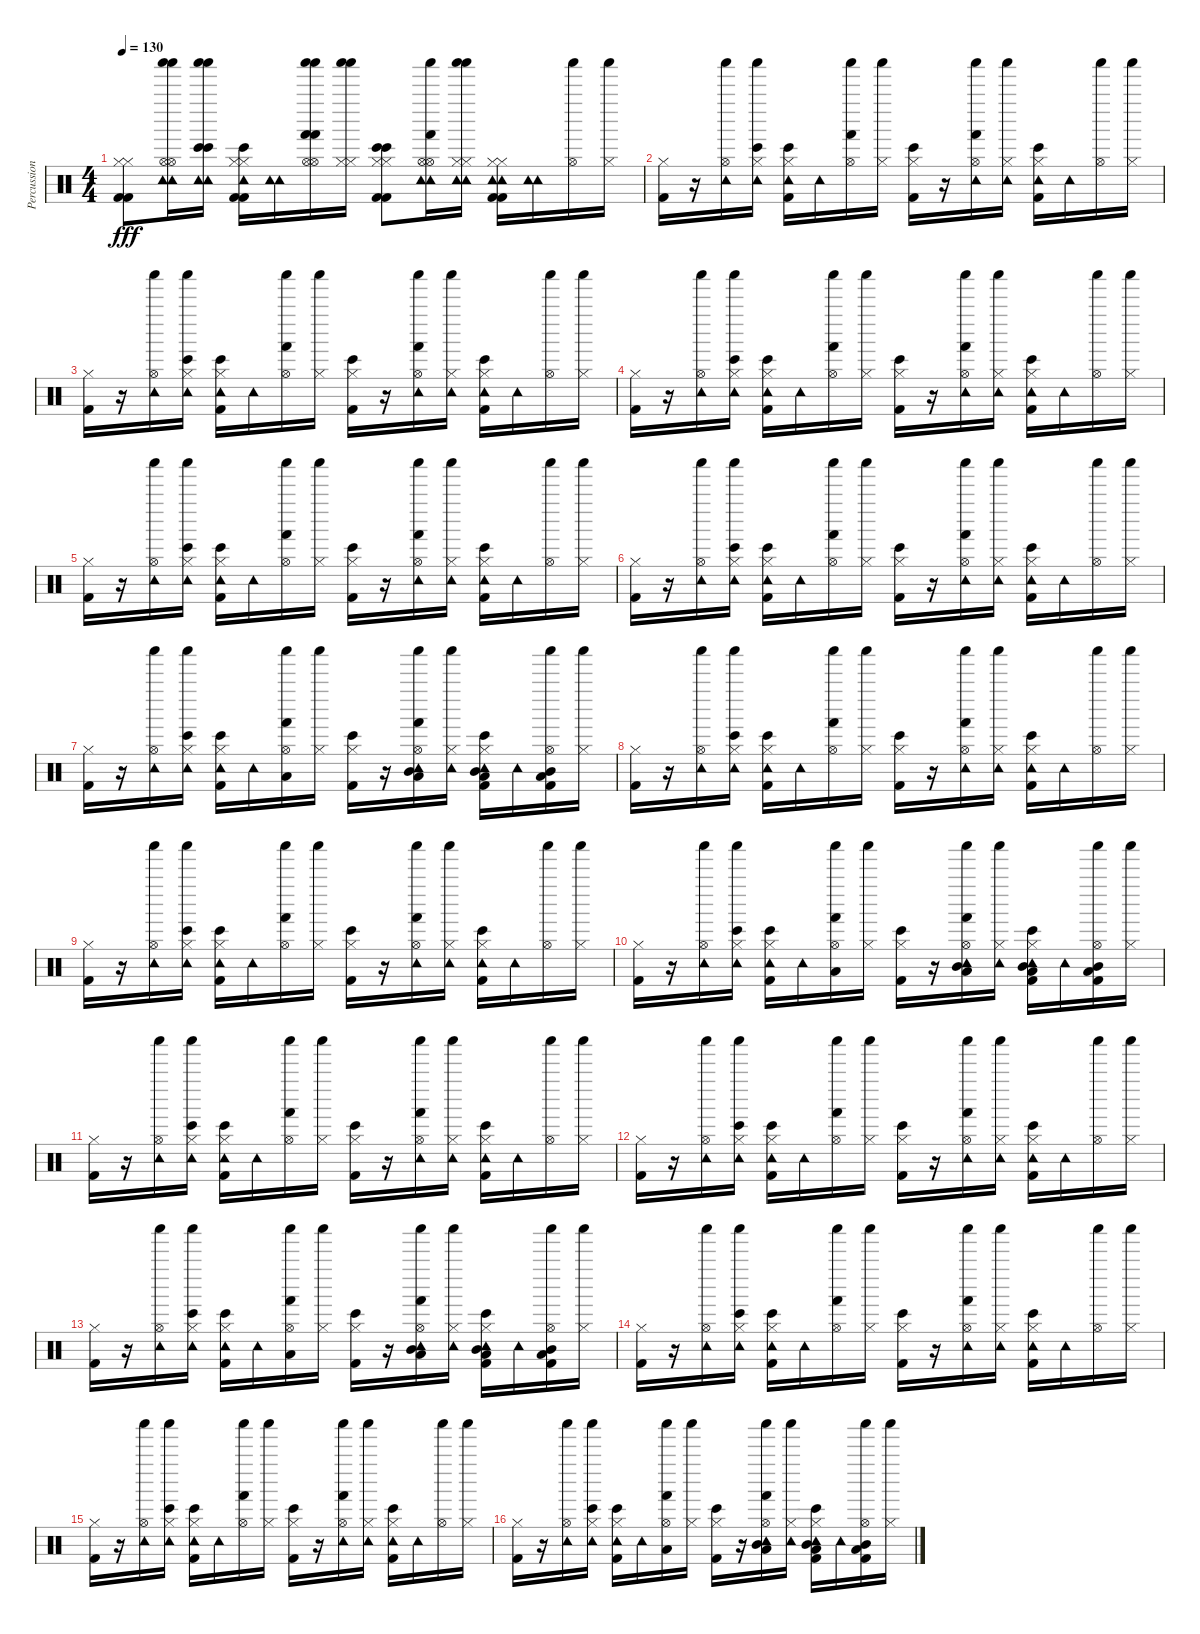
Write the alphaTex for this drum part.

\track ("Percussions" "Percussion") {instrument percussion}
\staff {score}
\articulation defaults
\ts (4 4)
\tempo 130
\clef neutral
\ks c
("Hi-Hat (closed)" "Kick (hit) 2" "Hi-Hat (closed)" "Kick (hit) 2").8{dy fff} ("Hi-Hat (open)" "Hi-Hat (open)" "Tambourine (hit)" "Shaker (hit)" "Tambourine (hit)" "Shaker (hit)").16 ("Tambourine (hit)" "Tambourine (hit)" "Shaker (hit)" "Bongo High (hit)" "Shaker (hit)" "Bongo High (hit)").16 ("Hi-Hat (closed)" "Hi-Hat (closed)" "Kick (hit) 2" "Tambourine (hit)" "Bongo High (hit)" "Kick (hit) 2").16 ("Tambourine (hit)" "Tambourine (hit)").16 ("Hi-Hat (open)" "Shaker (hit)" "Hand (hit)" "Hi-Hat (open)" "Shaker (hit)" "Hand (hit)").16 ("Shaker (hit)" "Hi-Hat (closed)" "Shaker (hit)" "Hi-Hat (closed)").16 ("Hi-Hat (closed)" "Kick (hit) 2" "Bongo High (hit)" "Hi-Hat (closed)" "Kick (hit) 2" "Bongo High (hit)").8 ("Hi-Hat (open)" "Hi-Hat (open)" "Tambourine (hit)" "Shaker (hit)" "Hand (hit)" "Tambourine (hit)").16 ("Tambourine (hit)" "Shaker (hit)" "Hi-Hat (closed)" "Tambourine (hit)" "Shaker (hit)" "Hi-Hat (closed)").16 ("Hi-Hat (closed)" "Kick (hit) 2" "Hi-Hat (closed)" "Kick (hit) 2" "Tambourine (hit)" "Tambourine (hit)").16 ("Tambourine (hit)" "Tambourine (hit)").16 ("Hi-Hat (open)" "Shaker (hit)").16 ("Shaker (hit)" "Hi-Hat (closed)").16 |
("Hi-Hat (closed)" "Kick (hit) 2").16 r.16 ("Hi-Hat (open)" "Tambourine (hit)" "Shaker (hit)").16 ("Tambourine (hit)" "Shaker (hit)" "Bongo High (hit)" "Hi-Hat (closed)").16 ("Hi-Hat (closed)" "Kick (hit) 2" "Tambourine (hit)" "Bongo High (hit)").16 "Tambourine (hit)".16 ("Hi-Hat (open)" "Shaker (hit)" "Hand (hit)").16 ("Shaker (hit)" "Hi-Hat (closed)").16 ("Hi-Hat (closed)" "Kick (hit) 2" "Bongo High (hit)").16 r.16 ("Hi-Hat (open)" "Tambourine (hit)" "Shaker (hit)" "Hand (hit)").16 ("Tambourine (hit)" "Shaker (hit)" "Hi-Hat (closed)").16 ("Hi-Hat (closed)" "Kick (hit) 2" "Tambourine (hit)" "Bongo High (hit)").16 "Tambourine (hit)".16 ("Hi-Hat (open)" "Shaker (hit)").16 ("Shaker (hit)" "Hi-Hat (closed)").16 |
("Hi-Hat (closed)" "Kick (hit) 2").16 r.16 ("Hi-Hat (open)" "Tambourine (hit)" "Shaker (hit)").16 ("Tambourine (hit)" "Shaker (hit)" "Bongo High (hit)" "Hi-Hat (closed)").16 ("Hi-Hat (closed)" "Kick (hit) 2" "Tambourine (hit)" "Bongo High (hit)").16 "Tambourine (hit)".16 ("Hi-Hat (open)" "Shaker (hit)" "Hand (hit)").16 ("Shaker (hit)" "Hi-Hat (closed)").16 ("Hi-Hat (closed)" "Kick (hit) 2" "Bongo High (hit)").16 r.16 ("Hi-Hat (open)" "Tambourine (hit)" "Shaker (hit)" "Hand (hit)").16 ("Tambourine (hit)" "Shaker (hit)" "Hi-Hat (closed)").16 ("Hi-Hat (closed)" "Kick (hit) 2" "Tambourine (hit)" "Bongo High (hit)").16 "Tambourine (hit)".16 ("Hi-Hat (open)" "Shaker (hit)").16 ("Shaker (hit)" "Hi-Hat (closed)").16 |
("Hi-Hat (closed)" "Kick (hit) 2").16 r.16 ("Hi-Hat (open)" "Tambourine (hit)" "Shaker (hit)").16 ("Tambourine (hit)" "Shaker (hit)" "Bongo High (hit)" "Hi-Hat (closed)").16 ("Hi-Hat (closed)" "Kick (hit) 2" "Tambourine (hit)" "Bongo High (hit)").16 "Tambourine (hit)".16 ("Hi-Hat (open)" "Shaker (hit)" "Hand (hit)").16 ("Shaker (hit)" "Hi-Hat (closed)").16 ("Hi-Hat (closed)" "Kick (hit) 2" "Bongo High (hit)").16 r.16 ("Hi-Hat (open)" "Tambourine (hit)" "Shaker (hit)" "Hand (hit)").16 ("Tambourine (hit)" "Shaker (hit)" "Hi-Hat (closed)").16 ("Hi-Hat (closed)" "Kick (hit) 2" "Tambourine (hit)" "Bongo High (hit)").16 "Tambourine (hit)".16 ("Hi-Hat (open)" "Shaker (hit)").16 ("Shaker (hit)" "Hi-Hat (closed)").16 |
("Hi-Hat (closed)" "Kick (hit) 2").16 r.16 ("Hi-Hat (open)" "Tambourine (hit)" "Shaker (hit)").16 ("Tambourine (hit)" "Shaker (hit)" "Bongo High (hit)" "Hi-Hat (closed)").16 ("Hi-Hat (closed)" "Kick (hit) 2" "Tambourine (hit)" "Bongo High (hit)").16 "Tambourine (hit)".16 ("Hi-Hat (open)" "Shaker (hit)" "Hand (hit)").16 ("Shaker (hit)" "Hi-Hat (closed)").16 ("Hi-Hat (closed)" "Kick (hit) 2" "Bongo High (hit)").16 r.16 ("Hi-Hat (open)" "Tambourine (hit)" "Shaker (hit)" "Hand (hit)").16 ("Tambourine (hit)" "Shaker (hit)" "Hi-Hat (closed)").16 ("Hi-Hat (closed)" "Kick (hit) 2" "Tambourine (hit)" "Bongo High (hit)").16 "Tambourine (hit)".16 ("Hi-Hat (open)" "Shaker (hit)").16 ("Shaker (hit)" "Hi-Hat (closed)").16 |
("Hi-Hat (closed)" "Kick (hit) 2").16 r.16 ("Hi-Hat (open)" "Tambourine (hit)" "Shaker (hit)").16 ("Tambourine (hit)" "Shaker (hit)" "Bongo High (hit)" "Hi-Hat (closed)").16 ("Hi-Hat (closed)" "Kick (hit) 2" "Tambourine (hit)" "Bongo High (hit)").16 "Tambourine (hit)".16 ("Hi-Hat (open)" "Shaker (hit)" "Hand (hit)").16 ("Shaker (hit)" "Hi-Hat (closed)").16 ("Hi-Hat (closed)" "Kick (hit) 2" "Bongo High (hit)").16 r.16 ("Hi-Hat (open)" "Tambourine (hit)" "Shaker (hit)" "Hand (hit)").16 ("Tambourine (hit)" "Shaker (hit)" "Hi-Hat (closed)").16 ("Hi-Hat (closed)" "Kick (hit) 2" "Tambourine (hit)" "Bongo High (hit)").16 "Tambourine (hit)".16 ("Hi-Hat (open)" "Shaker (hit)").16 ("Shaker (hit)" "Hi-Hat (closed)").16 |
("Hi-Hat (closed)" "Kick (hit) 2").16 r.16 ("Hi-Hat (open)" "Tambourine (hit)" "Shaker (hit)").16 ("Tambourine (hit)" "Shaker (hit)" "Bongo High (hit)" "Hi-Hat (closed)").16 ("Hi-Hat (closed)" "Kick (hit) 2" "Tambourine (hit)" "Bongo High (hit)").16 "Tambourine (hit)".16 ("Low Tom (hit)" "Hi-Hat (open)" "Shaker (hit)" "Hand (hit)").16 ("Shaker (hit)" "Hi-Hat (closed)").16 ("Hi-Hat (closed)" "Kick (hit) 2" "Bongo High (hit)").16 r.16 ("Low Tom (hit)" "Mid Tom (hit)" "Hi-Hat (open)" "Tambourine (hit)" "Shaker (hit)" "Hand (hit)").16 ("Tambourine (hit)" "Shaker (hit)" "Hi-Hat (closed)").16 ("Low Tom (hit)" "Mid Tom (hit)" "Hi-Hat (closed)" "Kick (hit) 2" "Tambourine (hit)" "Bongo High (hit)").16 "Tambourine (hit)".16 ("Kick (hit) 2" "Low Tom (hit)" "Mid Tom (hit)" "Hi-Hat (open)" "Shaker (hit)").16 ("Shaker (hit)" "Hi-Hat (closed)").16 |
("Hi-Hat (closed)" "Kick (hit) 2").16 r.16 ("Hi-Hat (open)" "Tambourine (hit)" "Shaker (hit)").16 ("Tambourine (hit)" "Shaker (hit)" "Bongo High (hit)" "Hi-Hat (closed)").16 ("Hi-Hat (closed)" "Kick (hit) 2" "Tambourine (hit)" "Bongo High (hit)").16 "Tambourine (hit)".16 ("Hi-Hat (open)" "Shaker (hit)" "Hand (hit)").16 ("Shaker (hit)" "Hi-Hat (closed)").16 ("Hi-Hat (closed)" "Kick (hit) 2" "Bongo High (hit)").16 r.16 ("Hi-Hat (open)" "Tambourine (hit)" "Shaker (hit)" "Hand (hit)").16 ("Tambourine (hit)" "Shaker (hit)" "Hi-Hat (closed)").16 ("Hi-Hat (closed)" "Kick (hit) 2" "Tambourine (hit)" "Bongo High (hit)").16 "Tambourine (hit)".16 ("Hi-Hat (open)" "Shaker (hit)").16 ("Shaker (hit)" "Hi-Hat (closed)").16 |
("Hi-Hat (closed)" "Kick (hit) 2").16 r.16 ("Hi-Hat (open)" "Tambourine (hit)" "Shaker (hit)").16 ("Tambourine (hit)" "Shaker (hit)" "Bongo High (hit)" "Hi-Hat (closed)").16 ("Hi-Hat (closed)" "Kick (hit) 2" "Tambourine (hit)" "Bongo High (hit)").16 "Tambourine (hit)".16 ("Hi-Hat (open)" "Shaker (hit)" "Hand (hit)").16 ("Shaker (hit)" "Hi-Hat (closed)").16 ("Hi-Hat (closed)" "Kick (hit) 2" "Bongo High (hit)").16 r.16 ("Hi-Hat (open)" "Tambourine (hit)" "Shaker (hit)" "Hand (hit)").16 ("Tambourine (hit)" "Shaker (hit)" "Hi-Hat (closed)").16 ("Hi-Hat (closed)" "Kick (hit) 2" "Tambourine (hit)" "Bongo High (hit)").16 "Tambourine (hit)".16 ("Hi-Hat (open)" "Shaker (hit)").16 ("Shaker (hit)" "Hi-Hat (closed)").16 |
("Hi-Hat (closed)" "Kick (hit) 2").16 r.16 ("Hi-Hat (open)" "Tambourine (hit)" "Shaker (hit)").16 ("Tambourine (hit)" "Shaker (hit)" "Bongo High (hit)" "Hi-Hat (closed)").16 ("Hi-Hat (closed)" "Kick (hit) 2" "Tambourine (hit)" "Bongo High (hit)").16 "Tambourine (hit)".16 ("Low Tom (hit)" "Hi-Hat (open)" "Shaker (hit)" "Hand (hit)").16 ("Shaker (hit)" "Hi-Hat (closed)").16 ("Hi-Hat (closed)" "Kick (hit) 2" "Bongo High (hit)").16 r.16 ("Low Tom (hit)" "Mid Tom (hit)" "Hi-Hat (open)" "Tambourine (hit)" "Shaker (hit)" "Hand (hit)").16 ("Tambourine (hit)" "Shaker (hit)" "Hi-Hat (closed)").16 ("Low Tom (hit)" "Mid Tom (hit)" "Hi-Hat (closed)" "Kick (hit) 2" "Tambourine (hit)" "Bongo High (hit)").16 "Tambourine (hit)".16 ("Kick (hit) 2" "Low Tom (hit)" "Mid Tom (hit)" "Hi-Hat (open)" "Shaker (hit)").16 ("Shaker (hit)" "Hi-Hat (closed)").16 |
("Hi-Hat (closed)" "Kick (hit) 2").16 r.16 ("Hi-Hat (open)" "Tambourine (hit)" "Shaker (hit)").16 ("Tambourine (hit)" "Shaker (hit)" "Bongo High (hit)" "Hi-Hat (closed)").16 ("Hi-Hat (closed)" "Kick (hit) 2" "Tambourine (hit)" "Bongo High (hit)").16 "Tambourine (hit)".16 ("Hi-Hat (open)" "Shaker (hit)" "Hand (hit)").16 ("Shaker (hit)" "Hi-Hat (closed)").16 ("Hi-Hat (closed)" "Kick (hit) 2" "Bongo High (hit)").16 r.16 ("Hi-Hat (open)" "Tambourine (hit)" "Shaker (hit)" "Hand (hit)").16 ("Tambourine (hit)" "Shaker (hit)" "Hi-Hat (closed)").16 ("Hi-Hat (closed)" "Kick (hit) 2" "Tambourine (hit)" "Bongo High (hit)").16 "Tambourine (hit)".16 ("Hi-Hat (open)" "Shaker (hit)").16 ("Shaker (hit)" "Hi-Hat (closed)").16 |
("Hi-Hat (closed)" "Kick (hit) 2").16 r.16 ("Hi-Hat (open)" "Tambourine (hit)" "Shaker (hit)").16 ("Tambourine (hit)" "Shaker (hit)" "Bongo High (hit)" "Hi-Hat (closed)").16 ("Hi-Hat (closed)" "Kick (hit) 2" "Tambourine (hit)" "Bongo High (hit)").16 "Tambourine (hit)".16 ("Hi-Hat (open)" "Shaker (hit)" "Hand (hit)").16 ("Shaker (hit)" "Hi-Hat (closed)").16 ("Hi-Hat (closed)" "Kick (hit) 2" "Bongo High (hit)").16 r.16 ("Hi-Hat (open)" "Tambourine (hit)" "Shaker (hit)" "Hand (hit)").16 ("Tambourine (hit)" "Shaker (hit)" "Hi-Hat (closed)").16 ("Hi-Hat (closed)" "Kick (hit) 2" "Tambourine (hit)" "Bongo High (hit)").16 "Tambourine (hit)".16 ("Hi-Hat (open)" "Shaker (hit)").16 ("Shaker (hit)" "Hi-Hat (closed)").16 |
("Hi-Hat (closed)" "Kick (hit) 2").16 r.16 ("Hi-Hat (open)" "Tambourine (hit)" "Shaker (hit)").16 ("Tambourine (hit)" "Shaker (hit)" "Bongo High (hit)" "Hi-Hat (closed)").16 ("Hi-Hat (closed)" "Kick (hit) 2" "Tambourine (hit)" "Bongo High (hit)").16 "Tambourine (hit)".16 ("Low Tom (hit)" "Hi-Hat (open)" "Shaker (hit)" "Hand (hit)").16 ("Shaker (hit)" "Hi-Hat (closed)").16 ("Hi-Hat (closed)" "Kick (hit) 2" "Bongo High (hit)").16 r.16 ("Low Tom (hit)" "Mid Tom (hit)" "Hi-Hat (open)" "Tambourine (hit)" "Shaker (hit)" "Hand (hit)").16 ("Tambourine (hit)" "Shaker (hit)" "Hi-Hat (closed)").16 ("Low Tom (hit)" "Mid Tom (hit)" "Hi-Hat (closed)" "Kick (hit) 2" "Tambourine (hit)" "Bongo High (hit)").16 "Tambourine (hit)".16 ("Kick (hit) 2" "Low Tom (hit)" "Mid Tom (hit)" "Hi-Hat (open)" "Shaker (hit)").16 ("Shaker (hit)" "Hi-Hat (closed)").16 |
("Hi-Hat (closed)" "Kick (hit) 2").16 r.16 ("Hi-Hat (open)" "Tambourine (hit)" "Shaker (hit)").16 ("Tambourine (hit)" "Shaker (hit)" "Bongo High (hit)" "Hi-Hat (closed)").16 ("Hi-Hat (closed)" "Kick (hit) 2" "Tambourine (hit)" "Bongo High (hit)").16 "Tambourine (hit)".16 ("Hi-Hat (open)" "Shaker (hit)" "Hand (hit)").16 ("Shaker (hit)" "Hi-Hat (closed)").16 ("Hi-Hat (closed)" "Kick (hit) 2" "Bongo High (hit)").16 r.16 ("Hi-Hat (open)" "Tambourine (hit)" "Shaker (hit)" "Hand (hit)").16 ("Tambourine (hit)" "Shaker (hit)" "Hi-Hat (closed)").16 ("Hi-Hat (closed)" "Kick (hit) 2" "Tambourine (hit)" "Bongo High (hit)").16 "Tambourine (hit)".16 ("Hi-Hat (open)" "Shaker (hit)").16 ("Shaker (hit)" "Hi-Hat (closed)").16 |
("Hi-Hat (closed)" "Kick (hit) 2").16 r.16 ("Hi-Hat (open)" "Tambourine (hit)" "Shaker (hit)").16 ("Tambourine (hit)" "Shaker (hit)" "Bongo High (hit)" "Hi-Hat (closed)").16 ("Hi-Hat (closed)" "Kick (hit) 2" "Tambourine (hit)" "Bongo High (hit)").16 "Tambourine (hit)".16 ("Hi-Hat (open)" "Shaker (hit)" "Hand (hit)").16 ("Shaker (hit)" "Hi-Hat (closed)").16 ("Hi-Hat (closed)" "Kick (hit) 2" "Bongo High (hit)").16 r.16 ("Hi-Hat (open)" "Tambourine (hit)" "Shaker (hit)" "Hand (hit)").16 ("Tambourine (hit)" "Shaker (hit)" "Hi-Hat (closed)").16 ("Hi-Hat (closed)" "Kick (hit) 2" "Tambourine (hit)" "Bongo High (hit)").16 "Tambourine (hit)".16 ("Hi-Hat (open)" "Shaker (hit)").16 ("Shaker (hit)" "Hi-Hat (closed)").16 |
("Hi-Hat (closed)" "Kick (hit) 2").16 r.16 ("Hi-Hat (open)" "Tambourine (hit)" "Shaker (hit)").16 ("Tambourine (hit)" "Shaker (hit)" "Bongo High (hit)" "Hi-Hat (closed)").16 ("Hi-Hat (closed)" "Kick (hit) 2" "Tambourine (hit)" "Bongo High (hit)").16 "Tambourine (hit)".16 ("Low Tom (hit)" "Hi-Hat (open)" "Shaker (hit)" "Hand (hit)").16 ("Shaker (hit)" "Hi-Hat (closed)").16 ("Hi-Hat (closed)" "Kick (hit) 2" "Bongo High (hit)").16 r.16 ("Low Tom (hit)" "Mid Tom (hit)" "Hi-Hat (open)" "Tambourine (hit)" "Shaker (hit)" "Hand (hit)").16 ("Tambourine (hit)" "Shaker (hit)" "Hi-Hat (closed)").16 ("Low Tom (hit)" "Mid Tom (hit)" "Hi-Hat (closed)" "Kick (hit) 2" "Tambourine (hit)" "Bongo High (hit)").16 "Tambourine (hit)".16 ("Kick (hit) 2" "Low Tom (hit)" "Mid Tom (hit)" "Hi-Hat (open)" "Shaker (hit)").16 ("Shaker (hit)" "Hi-Hat (closed)").16
